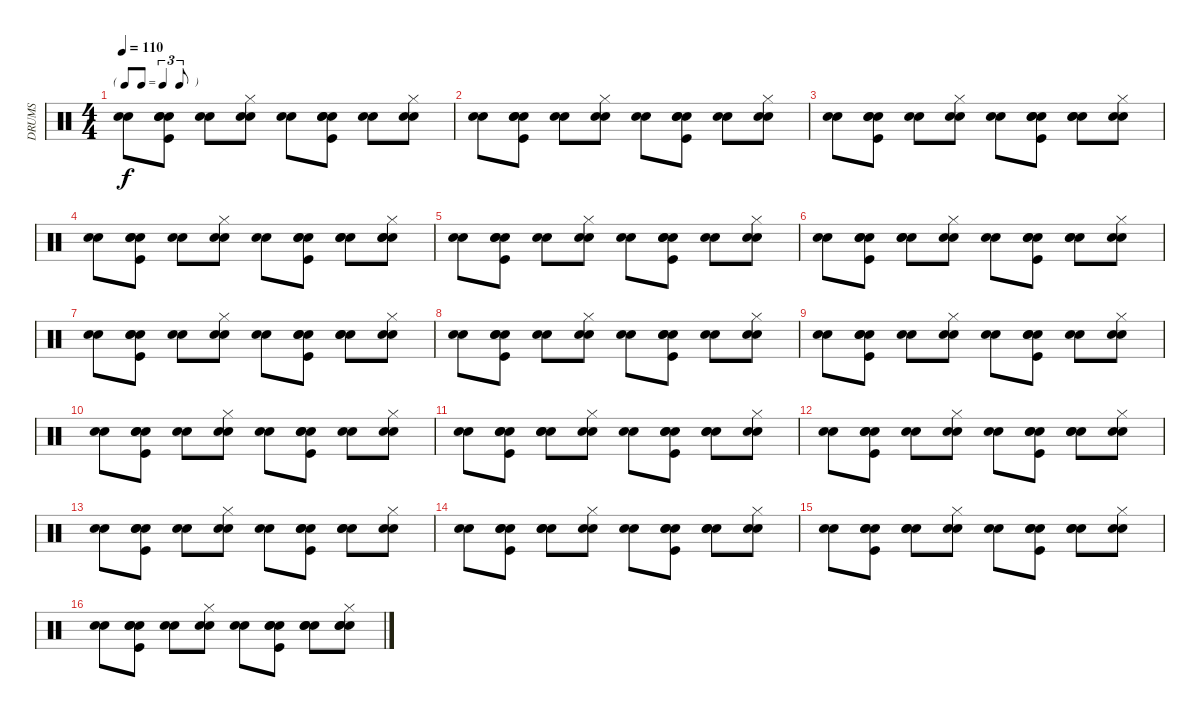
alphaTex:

\track ("DRUMS" "DRUMS") {instrument percussion}
\staff {score}
\articulation defaults
\ts (4 4)
\tf triplet8th
\tempo 110
\clef neutral
\ks c
("Snare (hit)" "Snare (hit) 2").8{dy f} ("Snare (hit)" "Kick (hit)" "Snare (hit) 2" "Electric Snare (hit)").8 ("Snare (hit)" "Electric Snare (hit)").8 ("Snare (hit)" "Snare (hit) 2" "Hi-Hat (closed)").8 ("Snare (hit)" "Snare (hit) 2").8 ("Snare (hit)" "Kick (hit)" "Snare (hit) 2" "Electric Snare (hit)").8 ("Snare (hit)" "Electric Snare (hit)").8 ("Snare (hit)" "Snare (hit) 2" "Hi-Hat (closed)").8 |
("Snare (hit)" "Snare (hit) 2").8 ("Snare (hit)" "Kick (hit)" "Snare (hit) 2" "Electric Snare (hit)").8 ("Snare (hit)" "Electric Snare (hit)").8 ("Snare (hit)" "Snare (hit) 2" "Hi-Hat (closed)").8 ("Snare (hit)" "Snare (hit) 2").8 ("Snare (hit)" "Kick (hit)" "Snare (hit) 2" "Electric Snare (hit)").8 ("Snare (hit)" "Electric Snare (hit)").8 ("Snare (hit)" "Snare (hit) 2" "Hi-Hat (closed)").8 |
("Snare (hit)" "Snare (hit) 2").8 ("Snare (hit)" "Kick (hit)" "Snare (hit) 2" "Electric Snare (hit)").8 ("Snare (hit)" "Electric Snare (hit)").8 ("Snare (hit)" "Snare (hit) 2" "Hi-Hat (closed)").8 ("Snare (hit)" "Snare (hit) 2").8 ("Snare (hit)" "Kick (hit)" "Snare (hit) 2" "Electric Snare (hit)").8 ("Snare (hit)" "Snare (hit) 2" "Electric Snare (hit)").8 ("Snare (hit)" "Snare (hit) 2" "Hi-Hat (closed)").8 |
("Snare (hit)" "Snare (hit) 2").8 ("Snare (hit)" "Kick (hit)" "Snare (hit) 2" "Electric Snare (hit)").8 ("Snare (hit)" "Electric Snare (hit)").8 ("Snare (hit)" "Snare (hit) 2" "Hi-Hat (closed)").8 ("Snare (hit)" "Snare (hit) 2").8 ("Snare (hit)" "Kick (hit)" "Snare (hit) 2" "Electric Snare (hit)").8 ("Snare (hit)" "Electric Snare (hit)" "Hand Clap (hit)").8 ("Snare (hit)" "Snare (hit) 2" "Hi-Hat (closed)" "Hand Clap (hit)").8 |
("Snare (hit)" "Snare (hit) 2").8 ("Snare (hit)" "Kick (hit)" "Snare (hit) 2" "Electric Snare (hit)").8 ("Snare (hit)" "Electric Snare (hit)").8 ("Snare (hit)" "Snare (hit) 2" "Hi-Hat (closed)").8 ("Snare (hit)" "Snare (hit) 2").8 ("Snare (hit)" "Kick (hit)" "Snare (hit) 2" "Electric Snare (hit)").8 ("Snare (hit)" "Electric Snare (hit)").8 ("Snare (hit)" "Snare (hit) 2" "Hi-Hat (closed)").8 |
("Snare (hit)" "Snare (hit) 2").8 ("Snare (hit)" "Kick (hit)" "Snare (hit) 2" "Electric Snare (hit)").8 ("Snare (hit)" "Snare (hit) 2" "Electric Snare (hit)").8 ("Snare (hit)" "Snare (hit) 2" "Hi-Hat (closed)").8 ("Snare (hit)" "Snare (hit) 2").8 ("Snare (hit)" "Kick (hit)" "Snare (hit) 2" "Electric Snare (hit)").8 ("Snare (hit)" "Snare (hit) 2" "Electric Snare (hit)").8 ("Snare (hit)" "Snare (hit) 2" "Hi-Hat (closed)").8 |
("Snare (hit)" "Snare (hit) 2").8 ("Snare (hit)" "Kick (hit)" "Snare (hit) 2" "Electric Snare (hit)").8 ("Snare (hit)" "Electric Snare (hit)").8 ("Snare (hit)" "Snare (hit) 2" "Hi-Hat (closed)").8 ("Snare (hit)" "Snare (hit) 2").8 ("Snare (hit)" "Kick (hit)" "Snare (hit) 2" "Electric Snare (hit)").8 ("Snare (hit)" "Snare (hit) 2" "Electric Snare (hit)").8 ("Snare (hit)" "Snare (hit) 2" "Hi-Hat (closed)").8 |
("Snare (hit)" "Snare (hit) 2").8 ("Snare (hit)" "Kick (hit)" "Snare (hit) 2" "Electric Snare (hit)").8 ("Snare (hit)" "Electric Snare (hit)").8 ("Snare (hit)" "Snare (hit) 2" "Hi-Hat (closed)").8 ("Snare (hit)" "Snare (hit) 2").8 ("Snare (hit)" "Kick (hit)" "Snare (hit) 2" "Electric Snare (hit)").8 ("Snare (hit)" "Electric Snare (hit)").8 ("Snare (hit)" "Snare (hit) 2" "Hi-Hat (closed)").8 |
("Snare (hit)" "Snare (hit) 2").8 ("Snare (hit)" "Kick (hit)" "Snare (hit) 2" "Electric Snare (hit)").8 ("Snare (hit)" "Electric Snare (hit)").8 ("Snare (hit)" "Snare (hit) 2" "Hi-Hat (closed)").8 ("Snare (hit)" "Snare (hit) 2").8 ("Snare (hit)" "Kick (hit)" "Snare (hit) 2" "Electric Snare (hit)").8 ("Snare (hit)" "Electric Snare (hit)").8 ("Snare (hit)" "Snare (hit) 2" "Hi-Hat (closed)").8 |
("Snare (hit)" "Snare (hit) 2").8 ("Snare (hit)" "Kick (hit)" "Snare (hit) 2" "Electric Snare (hit)").8 ("Snare (hit)" "Electric Snare (hit)").8 ("Snare (hit)" "Snare (hit) 2" "Hi-Hat (closed)").8 ("Snare (hit)" "Snare (hit) 2").8 ("Snare (hit)" "Kick (hit)" "Snare (hit) 2" "Electric Snare (hit)").8 ("Snare (hit)" "Electric Snare (hit)").8 ("Snare (hit)" "Snare (hit) 2" "Hi-Hat (closed)").8 |
("Snare (hit)" "Snare (hit) 2").8 ("Snare (hit)" "Kick (hit)" "Snare (hit) 2" "Electric Snare (hit)").8 ("Snare (hit)" "Snare (hit) 2" "Electric Snare (hit)").8 ("Snare (hit)" "Snare (hit) 2" "Hi-Hat (closed)").8 ("Snare (hit)" "Snare (hit) 2").8 ("Snare (hit)" "Kick (hit)" "Snare (hit) 2" "Electric Snare (hit)").8 ("Snare (hit)" "Snare (hit) 2" "Electric Snare (hit)").8 ("Snare (hit)" "Snare (hit) 2" "Hi-Hat (closed)").8 |
("Snare (hit)" "Snare (hit) 2").8 ("Snare (hit)" "Kick (hit)" "Snare (hit) 2" "Electric Snare (hit)").8 ("Snare (hit)" "Electric Snare (hit)").8 ("Snare (hit)" "Snare (hit) 2" "Hi-Hat (closed)").8 ("Snare (hit)" "Snare (hit) 2").8 ("Snare (hit)" "Kick (hit)" "Snare (hit) 2" "Electric Snare (hit)").8 ("Snare (hit)" "Snare (hit) 2" "Electric Snare (hit)").8 ("Snare (hit)" "Snare (hit) 2" "Hi-Hat (closed)").8 |
("Snare (hit)" "Snare (hit) 2").8 ("Snare (hit)" "Kick (hit)" "Snare (hit) 2" "Electric Snare (hit)").8 ("Snare (hit)" "Electric Snare (hit)").8 ("Snare (hit)" "Snare (hit) 2" "Hi-Hat (closed)").8 ("Snare (hit)" "Snare (hit) 2").8 ("Snare (hit)" "Kick (hit)" "Snare (hit) 2" "Electric Snare (hit)").8 ("Snare (hit)" "Snare (hit) 2" "Electric Snare (hit)").8 ("Snare (hit)" "Snare (hit) 2" "Hi-Hat (closed)").8 |
("Snare (hit)" "Snare (hit) 2").8 ("Snare (hit)" "Kick (hit)" "Snare (hit) 2" "Electric Snare (hit)").8 ("Snare (hit)" "Snare (hit) 2" "Electric Snare (hit)").8 ("Snare (hit)" "Snare (hit) 2" "Hi-Hat (closed)").8 ("Snare (hit)" "Snare (hit) 2").8 ("Snare (hit)" "Kick (hit)" "Snare (hit) 2" "Electric Snare (hit)").8 ("Snare (hit)" "Snare (hit) 2" "Electric Snare (hit)").8 ("Snare (hit)" "Snare (hit) 2" "Hi-Hat (closed)").8 |
("Snare (hit)" "Snare (hit) 2").8 ("Snare (hit)" "Kick (hit)" "Snare (hit) 2" "Electric Snare (hit)").8 ("Snare (hit)" "Snare (hit) 2" "Electric Snare (hit)").8 ("Snare (hit)" "Snare (hit) 2" "Hi-Hat (closed)").8 ("Snare (hit)" "Snare (hit) 2").8 ("Snare (hit)" "Kick (hit)" "Snare (hit) 2" "Electric Snare (hit)").8 ("Snare (hit)" "Snare (hit) 2" "Electric Snare (hit)").8 ("Snare (hit)" "Snare (hit) 2" "Hi-Hat (closed)").8 |
("Snare (hit)" "Snare (hit) 2").8 ("Snare (hit)" "Kick (hit)" "Snare (hit) 2" "Electric Snare (hit)").8 ("Snare (hit)" "Electric Snare (hit)").8 ("Snare (hit)" "Snare (hit) 2" "Hi-Hat (closed)").8 ("Snare (hit)" "Snare (hit) 2").8 ("Snare (hit)" "Kick (hit)" "Snare (hit) 2" "Electric Snare (hit)").8 ("Snare (hit)" "Electric Snare (hit)" "Hand Clap (hit)").8 ("Snare (hit)" "Snare (hit) 2" "Hi-Hat (closed)" "Hand Clap (hit)").8
